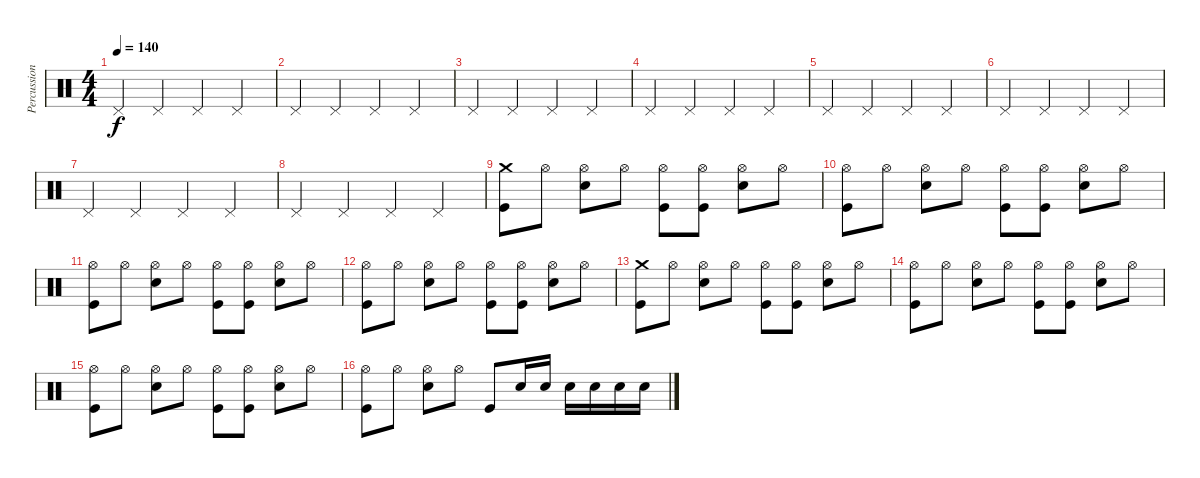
\track ("Percussion" "Percussion") {instrument percussion}
\staff {score}
\articulation defaults
\ts (4 4)
\tempo 140
\clef neutral
\ks c "Pedal Hi-Hat (hit)".4{dy f} "Pedal Hi-Hat (hit)".4 "Pedal Hi-Hat (hit)".4 "Pedal Hi-Hat (hit)".4
|
"Pedal Hi-Hat (hit)".4 "Pedal Hi-Hat (hit)".4 "Pedal Hi-Hat (hit)".4 "Pedal Hi-Hat (hit)".4 |
"Pedal Hi-Hat (hit)".4 "Pedal Hi-Hat (hit)".4 "Pedal Hi-Hat (hit)".4 "Pedal Hi-Hat (hit)".4 |
"Pedal Hi-Hat (hit)".4 "Pedal Hi-Hat (hit)".4 "Pedal Hi-Hat (hit)".4 "Pedal Hi-Hat (hit)".4 |
"Pedal Hi-Hat (hit)".4 "Pedal Hi-Hat (hit)".4 "Pedal Hi-Hat (hit)".4 "Pedal Hi-Hat (hit)".4 |
"Pedal Hi-Hat (hit)".4 "Pedal Hi-Hat (hit)".4 "Pedal Hi-Hat (hit)".4 "Pedal Hi-Hat (hit)".4 |
"Pedal Hi-Hat (hit)".4 "Pedal Hi-Hat (hit)".4 "Pedal Hi-Hat (hit)".4 "Pedal Hi-Hat (hit)".4 |
"Pedal Hi-Hat (hit)".4 "Pedal Hi-Hat (hit)".4 "Pedal Hi-Hat (hit)".4 "Pedal Hi-Hat (hit)".4 |
("Crash medium (hit)" "Kick (hit)").8 "Hi-Hat (open)".8 ("Hi-Hat (open)" "Electric Snare (hit)").8 "Hi-Hat (open)".8 ("Hi-Hat (open)" "Kick (hit)").8 ("Hi-Hat (open)" "Kick (hit)").8 ("Hi-Hat (open)" "Electric Snare (hit)").8 "Hi-Hat (open)".8 |
("Hi-Hat (open)" "Kick (hit)").8 "Hi-Hat (open)".8 ("Hi-Hat (open)" "Electric Snare (hit)").8 "Hi-Hat (open)".8 ("Hi-Hat (open)" "Kick (hit)").8 ("Hi-Hat (open)" "Kick (hit)").8 ("Hi-Hat (open)" "Electric Snare (hit)").8 "Hi-Hat (open)".8 |
("Hi-Hat (open)" "Kick (hit)").8 "Hi-Hat (open)".8 ("Hi-Hat (open)" "Electric Snare (hit)").8 "Hi-Hat (open)".8 ("Hi-Hat (open)" "Kick (hit)").8 ("Hi-Hat (open)" "Kick (hit)").8 ("Hi-Hat (open)" "Electric Snare (hit)").8 "Hi-Hat (open)".8 |
("Hi-Hat (open)" "Kick (hit)").8 "Hi-Hat (open)".8 ("Hi-Hat (open)" "Electric Snare (hit)").8 "Hi-Hat (open)".8 ("Hi-Hat (open)" "Kick (hit)").8 ("Hi-Hat (open)" "Kick (hit)").8 ("Hi-Hat (open)" "Electric Snare (hit)").8 "Hi-Hat (open)".8 |
("Crash medium (hit)" "Kick (hit)").8 "Hi-Hat (open)".8 ("Hi-Hat (open)" "Electric Snare (hit)").8 "Hi-Hat (open)".8 ("Hi-Hat (open)" "Kick (hit)").8 ("Hi-Hat (open)" "Kick (hit)").8 ("Hi-Hat (open)" "Electric Snare (hit)").8 "Hi-Hat (open)".8 |
("Hi-Hat (open)" "Kick (hit)").8 "Hi-Hat (open)".8 ("Hi-Hat (open)" "Electric Snare (hit)").8 "Hi-Hat (open)".8 ("Hi-Hat (open)" "Kick (hit)").8 ("Hi-Hat (open)" "Kick (hit)").8 ("Hi-Hat (open)" "Electric Snare (hit)").8 "Hi-Hat (open)".8 |
("Hi-Hat (open)" "Kick (hit)").8 "Hi-Hat (open)".8 ("Hi-Hat (open)" "Electric Snare (hit)").8 "Hi-Hat (open)".8 ("Hi-Hat (open)" "Kick (hit)").8 ("Hi-Hat (open)" "Kick (hit)").8 ("Hi-Hat (open)" "Electric Snare (hit)").8 "Hi-Hat (open)".8 |
("Hi-Hat (open)" "Kick (hit)").8 "Hi-Hat (open)".8 ("Hi-Hat (open)" "Electric Snare (hit)").8 "Hi-Hat (open)".8 "Kick (hit)".8 "Electric Snare (hit)".16 "Electric Snare (hit)".16 "Electric Snare (hit)".16 "Electric Snare (hit)".16 "Electric Snare (hit)".16 "Electric Snare (hit)".16
